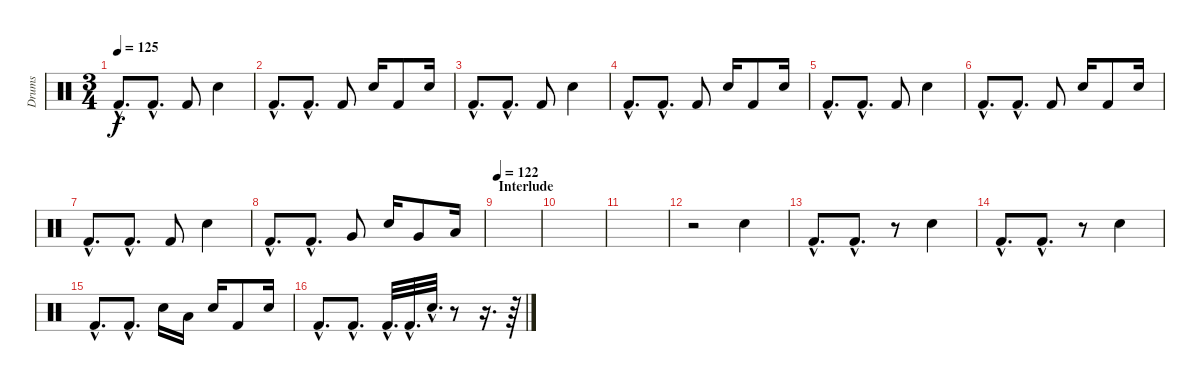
\track ("Drums" "Drums") {instrument percussion}
\staff {score}
\articulation defaults
\ts (3 4)
\tempo 125
\clef neutral
\ks c "Kick (hit) 2"{hac}.8{d dy f} "Kick (hit) 2"{hac}.8{d} "Kick (hit) 2".8 "Electric Snare (hit)".4
|
"Kick (hit) 2"{hac}.8{d} "Kick (hit) 2"{hac}.8{d} "Kick (hit) 2".8 "Electric Snare (hit)".16 "Kick (hit) 2".8 "Electric Snare (hit)".16 |
"Kick (hit) 2"{hac}.8{d} "Kick (hit) 2"{hac}.8{d} "Kick (hit) 2".8 "Electric Snare (hit)".4 |
"Kick (hit) 2"{hac}.8{d} "Kick (hit) 2"{hac}.8{d} "Kick (hit) 2".8 "Electric Snare (hit)".16 "Kick (hit) 2".8 "Electric Snare (hit)".16 |
"Kick (hit) 2"{hac}.8{d} "Kick (hit) 2"{hac}.8{d} "Kick (hit) 2".8 "Electric Snare (hit)".4 |
"Kick (hit) 2"{hac}.8{d} "Kick (hit) 2"{hac}.8{d} "Kick (hit) 2".8 "Electric Snare (hit)".16 "Kick (hit) 2".8 "Electric Snare (hit)".16 |
"Kick (hit) 2"{hac}.8{d} "Kick (hit) 2"{hac}.8{d} "Kick (hit) 2".8 "Electric Snare (hit)".4 |
"Kick (hit) 2"{hac}.8{d} "Kick (hit) 2"{hac}.8{d} "Very Low Tom (hit)".8 "Electric Snare (hit)".16 "Very Low Tom (hit)".8 "Low Floor Tom (hit)".16 |
\section ("" "Interlude")
\tempo 122
|
|
|
r.2 "Electric Snare (hit)".4 |
"Kick (hit) 2"{hac}.8{d} "Kick (hit) 2"{hac}.8{d} r.8 "Electric Snare (hit)".4 |
"Kick (hit) 2"{hac}.8{d} "Kick (hit) 2"{hac}.8{d} r.8 "Electric Snare (hit)".4 |
"Kick (hit) 2"{hac}.8{d} "Kick (hit) 2"{hac}.8{d} "Electric Snare (hit)".16 "Low Tom (hit)".16 "Electric Snare (hit)".16 "Kick (hit) 2".8 "Electric Snare (hit)".16 |
"Kick (hit) 2"{hac}.8{d} "Kick (hit) 2"{hac}.8{d} "Kick (hit) 2"{hac}.32{d} "Kick (hit) 2"{hac}.32{d} "Electric Snare (hit)"{hac}.32{d} r.8 r.16{d} r.64
